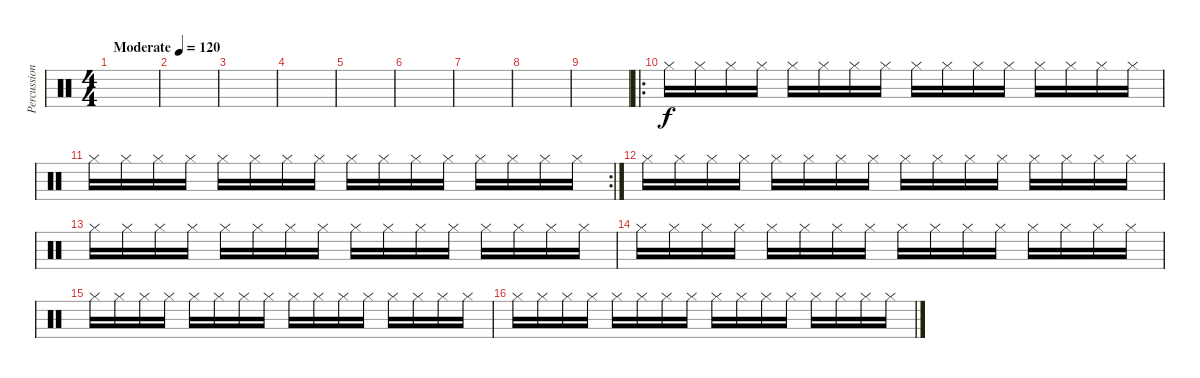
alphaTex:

\track ("Percussion" "Percussion") {instrument percussion}
\staff {score}
\articulation defaults
\ts (4 4)
\tempo (120 "Moderate")
\clef neutral
\ks c
|
|
|
|
|
|
|
|
|
\ro "Hi-Hat (closed)".16 "Hi-Hat (closed)".16 "Hi-Hat (closed)".16 "Hi-Hat (closed)".16 "Hi-Hat (closed)".16 "Hi-Hat (closed)".16 "Hi-Hat (closed)".16 "Hi-Hat (closed)".16 "Hi-Hat (closed)".16 "Hi-Hat (closed)".16 "Hi-Hat (closed)".16 "Hi-Hat (closed)".16 "Hi-Hat (closed)".16 "Hi-Hat (closed)".16 "Hi-Hat (closed)".16 "Hi-Hat (closed)".16
|
\rc 2 "Hi-Hat (closed)".16 "Hi-Hat (closed)".16 "Hi-Hat (closed)".16 "Hi-Hat (closed)".16 "Hi-Hat (closed)".16 "Hi-Hat (closed)".16 "Hi-Hat (closed)".16 "Hi-Hat (closed)".16 "Hi-Hat (closed)".16 "Hi-Hat (closed)".16 "Hi-Hat (closed)".16 "Hi-Hat (closed)".16 "Hi-Hat (closed)".16 "Hi-Hat (closed)".16 "Hi-Hat (closed)".16 "Hi-Hat (closed)".16
|
"Hi-Hat (closed)".16 "Hi-Hat (closed)".16 "Hi-Hat (closed)".16 "Hi-Hat (closed)".16 "Hi-Hat (closed)".16 "Hi-Hat (closed)".16 "Hi-Hat (closed)".16 "Hi-Hat (closed)".16 "Hi-Hat (closed)".16 "Hi-Hat (closed)".16 "Hi-Hat (closed)".16 "Hi-Hat (closed)".16 "Hi-Hat (closed)".16 "Hi-Hat (closed)".16 "Hi-Hat (closed)".16 "Hi-Hat (closed)".16 |
"Hi-Hat (closed)".16 "Hi-Hat (closed)".16 "Hi-Hat (closed)".16 "Hi-Hat (closed)".16 "Hi-Hat (closed)".16 "Hi-Hat (closed)".16 "Hi-Hat (closed)".16 "Hi-Hat (closed)".16 "Hi-Hat (closed)".16 "Hi-Hat (closed)".16 "Hi-Hat (closed)".16 "Hi-Hat (closed)".16 "Hi-Hat (closed)".16 "Hi-Hat (closed)".16 "Hi-Hat (closed)".16 "Hi-Hat (closed)".16 |
"Hi-Hat (closed)".16 "Hi-Hat (closed)".16 "Hi-Hat (closed)".16 "Hi-Hat (closed)".16 "Hi-Hat (closed)".16 "Hi-Hat (closed)".16 "Hi-Hat (closed)".16 "Hi-Hat (closed)".16 "Hi-Hat (closed)".16 "Hi-Hat (closed)".16 "Hi-Hat (closed)".16 "Hi-Hat (closed)".16 "Hi-Hat (closed)".16 "Hi-Hat (closed)".16 "Hi-Hat (closed)".16 "Hi-Hat (closed)".16 |
"Hi-Hat (closed)".16 "Hi-Hat (closed)".16 "Hi-Hat (closed)".16 "Hi-Hat (closed)".16 "Hi-Hat (closed)".16 "Hi-Hat (closed)".16 "Hi-Hat (closed)".16 "Hi-Hat (closed)".16 "Hi-Hat (closed)".16 "Hi-Hat (closed)".16 "Hi-Hat (closed)".16 "Hi-Hat (closed)".16 "Hi-Hat (closed)".16 "Hi-Hat (closed)".16 "Hi-Hat (closed)".16 "Hi-Hat (closed)".16 |
"Hi-Hat (closed)".16 "Hi-Hat (closed)".16 "Hi-Hat (closed)".16 "Hi-Hat (closed)".16 "Hi-Hat (closed)".16 "Hi-Hat (closed)".16 "Hi-Hat (closed)".16 "Hi-Hat (closed)".16 "Hi-Hat (closed)".16 "Hi-Hat (closed)".16 "Hi-Hat (closed)".16 "Hi-Hat (closed)".16 "Hi-Hat (closed)".16 "Hi-Hat (closed)".16 "Hi-Hat (closed)".16 "Hi-Hat (closed)".16
